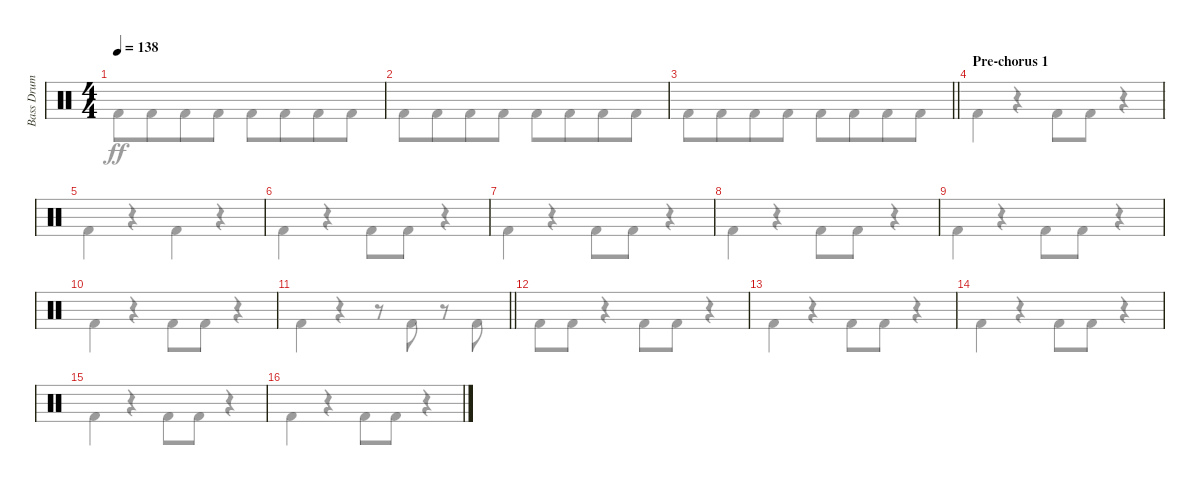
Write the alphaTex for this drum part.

\track ("Bass Drum" "Bass Drum") {instrument percussion}
\staff {score}
\articulation defaults
\voice
\ts (4 4)
\tempo 138
\clef neutral
\ks c
|
|
\barLineRight lightlight
|
\section ("" "Pre-chorus 1")
|
|
|
|
|
|
|
\barLineRight lightlight
|
|
|
|
|
\voice
\clef neutral
\ks c "Kick (hit) 2".8{dy ff} "Kick (hit) 2".8{beam merge} "Kick (hit) 2".8 "Kick (hit) 2".8 "Kick (hit) 2".8 "Kick (hit) 2".8{beam merge} "Kick (hit) 2".8 "Kick (hit) 2".8
|
"Kick (hit) 2".8 "Kick (hit) 2".8{beam merge} "Kick (hit) 2".8 "Kick (hit) 2".8 "Kick (hit) 2".8 "Kick (hit) 2".8{beam merge} "Kick (hit) 2".8 "Kick (hit) 2".8 |
\barLineRight lightlight "Kick (hit) 2".8 "Kick (hit) 2".8{beam merge} "Kick (hit) 2".8 "Kick (hit) 2".8 "Kick (hit) 2".8 "Kick (hit) 2".8{beam merge} "Kick (hit) 2".8 "Kick (hit) 2".8
|
"Kick (hit) 2".4 r.4 "Kick (hit) 2".8 "Kick (hit) 2".8 r.4 |
"Kick (hit) 2".4 r.4 "Kick (hit) 2".4 r.4 |
"Kick (hit) 2".4 r.4 "Kick (hit) 2".8 "Kick (hit) 2".8 r.4 |
"Kick (hit) 2".4 r.4 "Kick (hit) 2".8 "Kick (hit) 2".8 r.4 |
"Kick (hit) 2".4 r.4 "Kick (hit) 2".8 "Kick (hit) 2".8 r.4 |
"Kick (hit) 2".4 r.4 "Kick (hit) 2".8 "Kick (hit) 2".8 r.4 |
"Kick (hit) 2".4 r.4 "Kick (hit) 2".8 "Kick (hit) 2".8 r.4 |
\barLineRight lightlight "Kick (hit) 2".4
r.4 r.8 "Kick (hit) 2".8 r.8 "Kick (hit) 2".8 |
"Kick (hit) 2".8 "Kick (hit) 2".8 r.4 "Kick (hit) 2".8 "Kick (hit) 2".8 r.4 |
"Kick (hit) 2".4 r.4 "Kick (hit) 2".8 "Kick (hit) 2".8 r.4 |
"Kick (hit) 2".4 r.4 "Kick (hit) 2".8 "Kick (hit) 2".8 r.4 |
"Kick (hit) 2".4 r.4 "Kick (hit) 2".8 "Kick (hit) 2".8 r.4 |
"Kick (hit) 2".4 r.4 "Kick (hit) 2".8 "Kick (hit) 2".8 r.4
